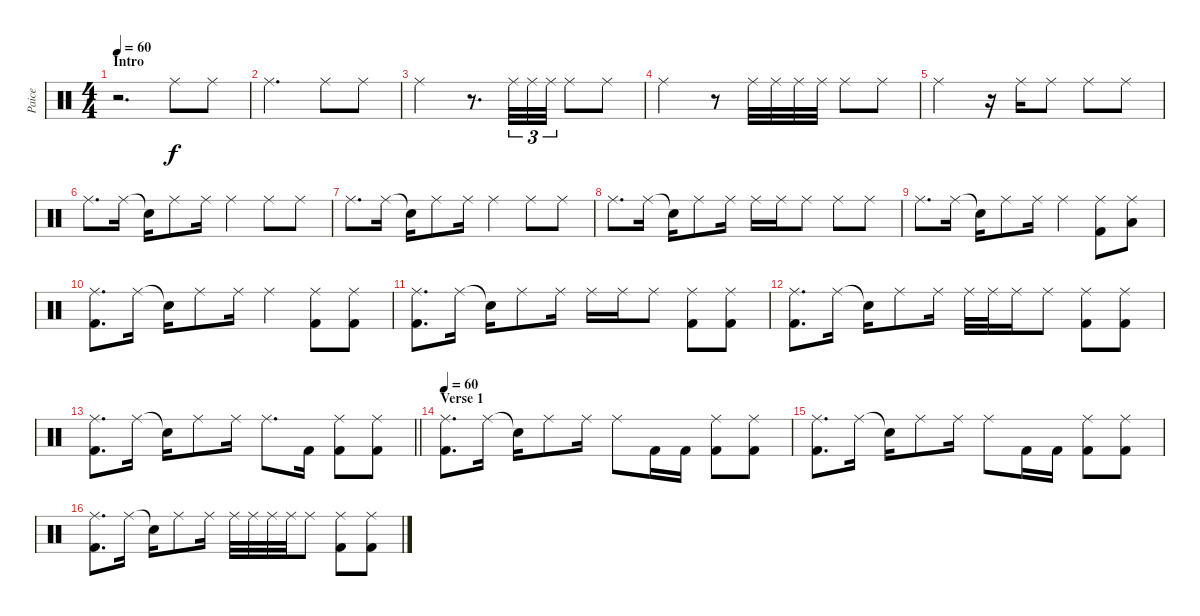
\track ("Paice" "Paice") {instrument percussion}
\staff {score}
\articulation defaults
\ts (4 4)
\section ("" "Intro")
\tempo 60
\clef neutral
\ks c
r.2{d dy f} "Ride (middle)".8 "Ride (middle)".8 |
"Ride (middle)".2{d} "Ride (middle)".8 "Ride (middle)".8 |
"Ride (middle)".2 r.8{d} "Ride (middle)".32{tu (3 2)} "Ride (middle)".32{tu (3 2)} "Ride (middle)".32{tu (3 2)} "Ride (middle)".8 "Ride (middle)".8 |
"Ride (middle)".2 r.8 "Ride (middle)".32 "Ride (middle)".32 "Ride (middle)".32 "Ride (middle)".32 "Ride (middle)".8 "Ride (middle)".8 |
"Ride (middle)".2 r.16 "Ride (middle)".16 "Ride (middle)".8 "Ride (middle)".8 "Ride (middle)".8 |
"Ride (middle)".8{d} "Ride (middle)".16 "Snare (hit)"{t}.16 "Ride (middle)".8 "Ride (middle)".16 "Ride (middle)".4 "Ride (middle)".8 "Ride (middle)".8 |
"Ride (middle)".8{d} "Ride (middle)".16 "Snare (hit)"{t}.16 "Ride (middle)".8 "Ride (middle)".16 "Ride (middle)".4 "Ride (middle)".8 "Ride (middle)".8 |
"Ride (middle)".8{d} "Ride (middle)".16 "Snare (hit)"{t}.16 "Ride (middle)".8 "Ride (middle)".16 "Ride (middle)".16 "Ride (middle)".16 "Ride (middle)".8 "Ride (middle)".8 "Ride (middle)".8 |
"Ride (middle)".8{d} "Ride (middle)".16 "Snare (hit)"{t}.16 "Ride (middle)".8 "Ride (middle)".16 "Ride (middle)".4 ("Ride (middle)" "Kick (hit) 2").8 ("Ride (middle)" "Low Floor Tom (hit)").8 |
("Ride (middle)" "Kick (hit) 2").8{d} "Ride (middle)".16 "Snare (hit)"{t}.16 "Ride (middle)".8 "Ride (middle)".16 "Ride (middle)".4 ("Ride (middle)" "Kick (hit) 2").8 ("Ride (middle)" "Kick (hit) 2").8 |
("Ride (middle)" "Kick (hit) 2").8{d} "Ride (middle)".16 "Snare (hit)"{t}.16 "Ride (middle)".8 "Ride (middle)".16 "Ride (middle)".16 "Ride (middle)".16 "Ride (middle)".8 ("Ride (middle)" "Kick (hit) 2").8 ("Ride (middle)" "Kick (hit) 2").8 |
("Ride (middle)" "Kick (hit) 2").8{d} "Ride (middle)".16 "Snare (hit)"{t}.16 "Ride (middle)".8 "Ride (middle)".16 "Ride (middle)".32 "Ride (middle)".32 "Ride (middle)".16 "Ride (middle)".8 ("Ride (middle)" "Kick (hit) 2").8 ("Ride (middle)" "Kick (hit) 2").8 |
\barLineRight lightlight
("Ride (middle)" "Kick (hit) 2").8{d} "Ride (middle)".16 "Snare (hit)"{t}.16 "Ride (middle)".8 "Ride (middle)".16 "Ride (middle)".8{d} "Kick (hit) 2".16 ("Ride (middle)" "Kick (hit) 2").8 ("Ride (middle)" "Kick (hit) 2").8 |
\section ("" "Verse 1")
\tempo 60
("Ride (middle)" "Kick (hit) 2").8{d} "Ride (middle)".16 "Snare (hit)"{t}.16 "Ride (middle)".8 "Ride (middle)".16 "Ride (middle)".8 "Kick (hit) 2"{x}.16 "Kick (hit) 2".16 ("Ride (middle)" "Kick (hit) 2").8 ("Ride (middle)" "Kick (hit) 2").8 |
("Ride (middle)" "Kick (hit) 2").8{d} "Ride (middle)".16 "Snare (hit)"{t}.16 "Ride (middle)".8 "Ride (middle)".16 "Ride (middle)".8 "Kick (hit) 2"{x}.16 "Kick (hit) 2".16 ("Ride (middle)" "Kick (hit) 2").8 ("Ride (middle)" "Kick (hit) 2").8 |
("Ride (middle)" "Kick (hit) 2").8{d} "Ride (middle)".16 "Snare (hit)"{t}.16 "Ride (middle)".8 "Ride (middle)".16 "Ride (middle)".32 "Ride (middle)".32 "Ride (middle)".32 "Ride (middle)".32 "Ride (middle)".8 ("Ride (middle)" "Kick (hit) 2").8 ("Ride (middle)" "Kick (hit) 2").8
